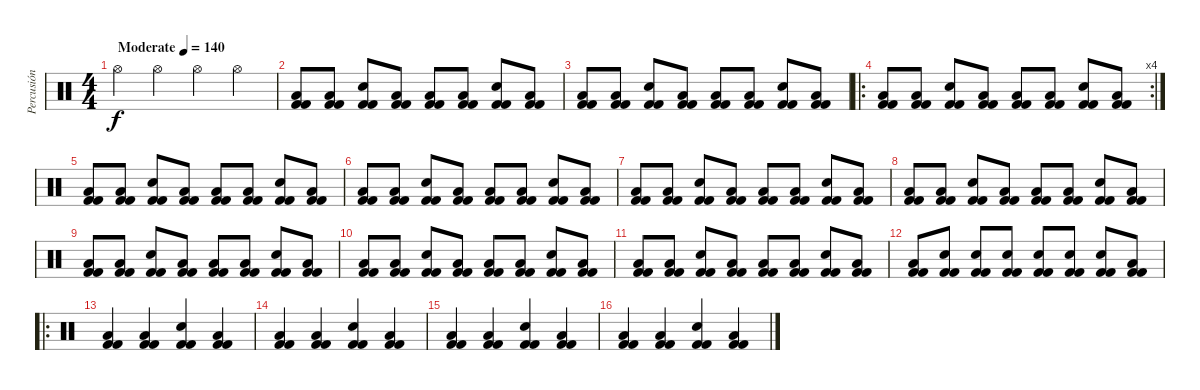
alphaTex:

\track ("Percusión" "Percusión") {instrument percussion}
\staff {score}
\articulation defaults
\ts (4 4)
\tempo (140 "Moderate")
\clef neutral
\ks c "Hi-Hat (open)".4{dy f} "Hi-Hat (open)".4 "Hi-Hat (open)".4 "Hi-Hat (open)".4
|
("Kick (hit) 2" "Kick (hit) 2" "Low Tom (hit)").8 ("Kick (hit) 2" "Kick (hit) 2" "Low Tom (hit)").8 ("Kick (hit) 2" "Kick (hit) 2" "Snare (hit) 2").8 ("Kick (hit) 2" "Kick (hit) 2" "Low Tom (hit)").8 ("Kick (hit) 2" "Kick (hit) 2" "Low Tom (hit)").8 ("Kick (hit) 2" "Kick (hit) 2" "Low Tom (hit)").8 ("Kick (hit) 2" "Kick (hit) 2" "Snare (hit) 2").8 ("Kick (hit) 2" "Kick (hit) 2" "Low Tom (hit)").8 |
("Kick (hit) 2" "Kick (hit) 2" "Low Tom (hit)").8 ("Kick (hit) 2" "Kick (hit) 2" "Low Tom (hit)").8 ("Kick (hit) 2" "Kick (hit) 2" "Snare (hit) 2").8 ("Kick (hit) 2" "Kick (hit) 2" "Low Tom (hit)").8 ("Kick (hit) 2" "Kick (hit) 2" "Low Tom (hit)").8 ("Kick (hit) 2" "Kick (hit) 2" "Low Tom (hit)").8 ("Kick (hit) 2" "Kick (hit) 2" "Snare (hit) 2").8 ("Kick (hit) 2" "Kick (hit) 2" "Low Tom (hit)").8 |
\ro
\rc 4
("Kick (hit) 2" "Kick (hit) 2" "Low Tom (hit)").8 ("Kick (hit) 2" "Kick (hit) 2" "Low Tom (hit)").8 ("Kick (hit) 2" "Kick (hit) 2" "Snare (hit) 2").8 ("Kick (hit) 2" "Kick (hit) 2" "Low Tom (hit)").8 ("Kick (hit) 2" "Kick (hit) 2" "Low Tom (hit)").8 ("Kick (hit) 2" "Kick (hit) 2" "Low Tom (hit)").8 ("Kick (hit) 2" "Kick (hit) 2" "Snare (hit) 2").8 ("Kick (hit) 2" "Kick (hit) 2" "Low Tom (hit)").8 |
("Kick (hit) 2" "Kick (hit) 2" "Low Tom (hit)").8 ("Kick (hit) 2" "Kick (hit) 2" "Low Tom (hit)").8 ("Kick (hit) 2" "Kick (hit) 2" "Snare (hit) 2").8 ("Kick (hit) 2" "Kick (hit) 2" "Low Tom (hit)").8 ("Kick (hit) 2" "Kick (hit) 2" "Low Tom (hit)").8 ("Kick (hit) 2" "Kick (hit) 2" "Low Tom (hit)").8 ("Kick (hit) 2" "Kick (hit) 2" "Snare (hit) 2").8 ("Kick (hit) 2" "Kick (hit) 2" "Low Tom (hit)").8 |
("Kick (hit) 2" "Kick (hit) 2" "Low Tom (hit)").8 ("Kick (hit) 2" "Kick (hit) 2" "Low Tom (hit)").8 ("Kick (hit) 2" "Kick (hit) 2" "Snare (hit) 2").8 ("Kick (hit) 2" "Kick (hit) 2" "Low Tom (hit)").8 ("Kick (hit) 2" "Kick (hit) 2" "Low Tom (hit)").8 ("Kick (hit) 2" "Kick (hit) 2" "Low Tom (hit)").8 ("Kick (hit) 2" "Kick (hit) 2" "Snare (hit) 2").8 ("Kick (hit) 2" "Kick (hit) 2" "Low Tom (hit)").8 |
("Kick (hit) 2" "Kick (hit) 2" "Low Tom (hit)").8 ("Kick (hit) 2" "Kick (hit) 2" "Low Tom (hit)").8 ("Kick (hit) 2" "Kick (hit) 2" "Snare (hit) 2").8 ("Kick (hit) 2" "Kick (hit) 2" "Low Tom (hit)").8 ("Kick (hit) 2" "Kick (hit) 2" "Low Tom (hit)").8 ("Kick (hit) 2" "Kick (hit) 2" "Low Tom (hit)").8 ("Kick (hit) 2" "Kick (hit) 2" "Snare (hit) 2").8 ("Kick (hit) 2" "Kick (hit) 2" "Low Tom (hit)").8 |
("Kick (hit) 2" "Kick (hit) 2" "Low Tom (hit)").8 ("Kick (hit) 2" "Kick (hit) 2" "Low Tom (hit)").8 ("Kick (hit) 2" "Kick (hit) 2" "Snare (hit) 2").8 ("Kick (hit) 2" "Kick (hit) 2" "Low Tom (hit)").8 ("Kick (hit) 2" "Kick (hit) 2" "Low Tom (hit)").8 ("Kick (hit) 2" "Kick (hit) 2" "Low Tom (hit)").8 ("Kick (hit) 2" "Kick (hit) 2" "Snare (hit) 2").8 ("Kick (hit) 2" "Kick (hit) 2" "Low Tom (hit)").8 |
("Kick (hit) 2" "Kick (hit) 2" "Low Tom (hit)").8 ("Kick (hit) 2" "Kick (hit) 2" "Low Tom (hit)").8 ("Kick (hit) 2" "Kick (hit) 2" "Snare (hit) 2").8 ("Kick (hit) 2" "Kick (hit) 2" "Low Tom (hit)").8 ("Kick (hit) 2" "Kick (hit) 2" "Low Tom (hit)").8 ("Kick (hit) 2" "Kick (hit) 2" "Low Tom (hit)").8 ("Kick (hit) 2" "Kick (hit) 2" "Snare (hit) 2").8 ("Kick (hit) 2" "Kick (hit) 2" "Low Tom (hit)").8 |
("Kick (hit) 2" "Kick (hit) 2" "Low Tom (hit)").8 ("Kick (hit) 2" "Kick (hit) 2" "Low Tom (hit)").8 ("Kick (hit) 2" "Kick (hit) 2" "Snare (hit) 2").8 ("Kick (hit) 2" "Kick (hit) 2" "Low Tom (hit)").8 ("Kick (hit) 2" "Kick (hit) 2" "Low Tom (hit)").8 ("Kick (hit) 2" "Kick (hit) 2" "Low Tom (hit)").8 ("Kick (hit) 2" "Kick (hit) 2" "Snare (hit) 2").8 ("Kick (hit) 2" "Kick (hit) 2" "Low Tom (hit)").8 |
("Kick (hit) 2" "Kick (hit) 2" "Low Tom (hit)").8 ("Kick (hit) 2" "Kick (hit) 2" "Low Tom (hit)").8 ("Kick (hit) 2" "Kick (hit) 2" "Snare (hit) 2").8 ("Kick (hit) 2" "Kick (hit) 2" "Low Tom (hit)").8 ("Kick (hit) 2" "Kick (hit) 2" "Low Tom (hit)").8 ("Kick (hit) 2" "Kick (hit) 2" "Low Tom (hit)").8 ("Kick (hit) 2" "Kick (hit) 2" "Snare (hit) 2").8 ("Kick (hit) 2" "Kick (hit) 2" "Low Tom (hit)").8 |
("Kick (hit) 2" "Kick (hit) 2" "Low Tom (hit)").8 ("Kick (hit) 2" "Kick (hit) 2" "Snare (hit) 2").8 ("Kick (hit) 2" "Kick (hit) 2" "Snare (hit) 2").8 ("Kick (hit) 2" "Kick (hit) 2" "Snare (hit) 2").8 ("Kick (hit) 2" "Kick (hit) 2" "Snare (hit) 2").8 ("Kick (hit) 2" "Kick (hit) 2" "Snare (hit) 2").8 ("Kick (hit) 2" "Kick (hit) 2" "Snare (hit) 2").8 ("Kick (hit) 2" "Kick (hit) 2" "Low Tom (hit)").8 |
\ro
("Kick (hit) 2" "Kick (hit) 2" "Low Tom (hit)").4 ("Kick (hit) 2" "Kick (hit) 2" "Low Tom (hit)").4 ("Kick (hit) 2" "Kick (hit) 2" "Snare (hit) 2").4 ("Kick (hit) 2" "Kick (hit) 2" "Low Tom (hit)").4 |
("Kick (hit) 2" "Kick (hit) 2" "Low Tom (hit)").4 ("Kick (hit) 2" "Kick (hit) 2" "Low Tom (hit)").4 ("Kick (hit) 2" "Kick (hit) 2" "Snare (hit) 2").4 ("Kick (hit) 2" "Kick (hit) 2" "Low Tom (hit)").4 |
("Kick (hit) 2" "Kick (hit) 2" "Low Tom (hit)").4 ("Kick (hit) 2" "Kick (hit) 2" "Low Tom (hit)").4 ("Kick (hit) 2" "Kick (hit) 2" "Snare (hit) 2").4 ("Kick (hit) 2" "Kick (hit) 2" "Low Tom (hit)").4 |
("Kick (hit) 2" "Kick (hit) 2" "Low Tom (hit)").4 ("Kick (hit) 2" "Kick (hit) 2" "Low Tom (hit)").4 ("Kick (hit) 2" "Kick (hit) 2" "Snare (hit) 2").4 ("Kick (hit) 2" "Kick (hit) 2" "Low Tom (hit)").4
